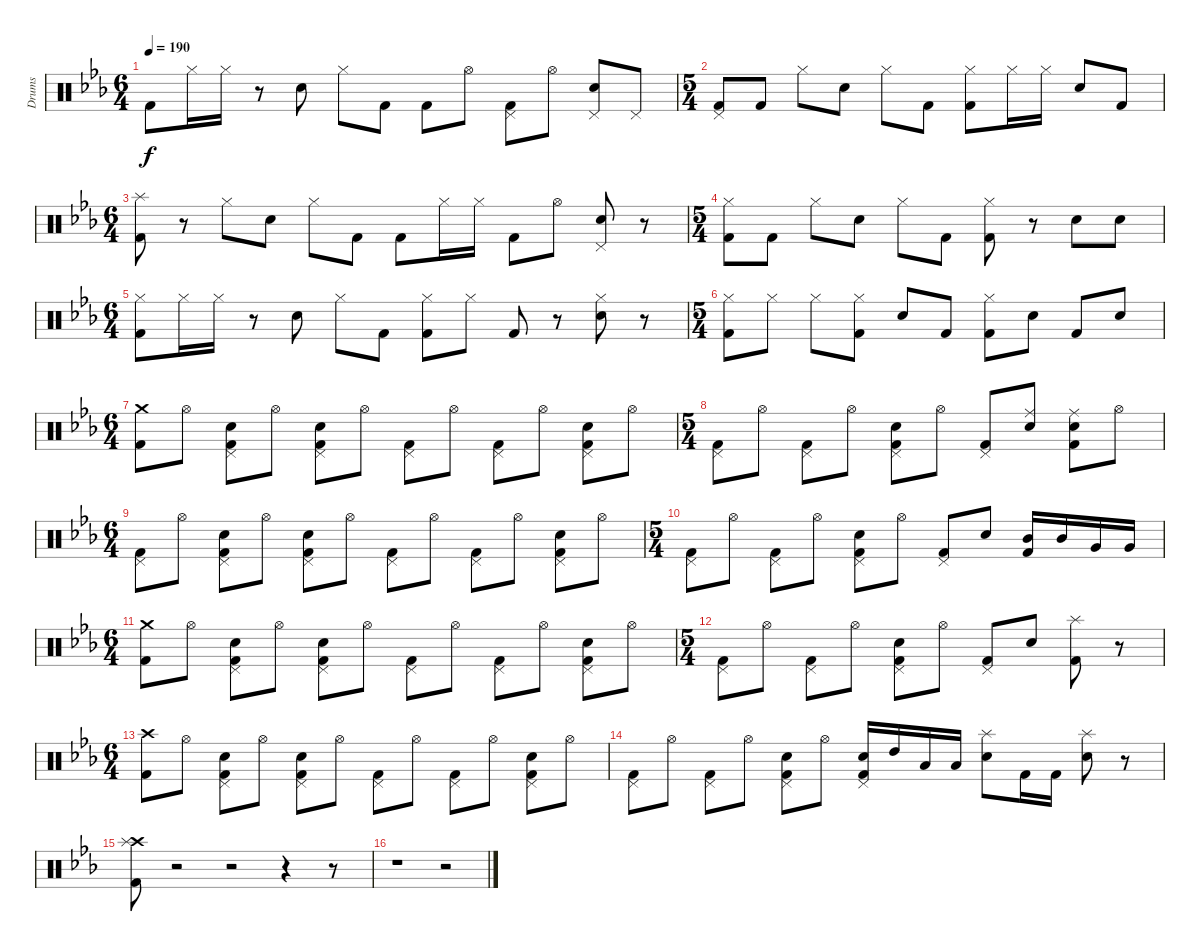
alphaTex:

\track ("Drums" "Drums") {instrument percussion}
\staff {score}
\articulation defaults
\ts (6 4)
\tempo 190
\clef neutral
\ks eb "Kick (hit) 2".8{dy f} "Hi-Hat (closed)".16 "Hi-Hat (closed)".16
r.8 "Electric Snare (hit)".8 "Hi-Hat (closed)".8 "Kick (hit) 2".8 "Kick (hit) 2".8 "Hi-Hat (open)".8 ("Kick (hit) 2" "Pedal Hi-Hat (hit)").8 "Hi-Hat (open)".8 ("Electric Snare (hit)" "Pedal Hi-Hat (hit)").8 "Pedal Hi-Hat (hit)".8 |
\ts (5 4)
("Kick (hit) 2" "Pedal Hi-Hat (hit)").8 "Kick (hit) 2".8 "Hi-Hat (closed)".8 "Electric Snare (hit)".8 "Hi-Hat (closed)".8 "Kick (hit) 2".8 ("Kick (hit) 2" "Hi-Hat (closed)").8 "Hi-Hat (closed)".16 "Hi-Hat (closed)".16 "Electric Snare (hit)".8 "Kick (hit) 2".8 |
\ts (6 4)
("Kick (hit) 2" "Splash (hit)").8 r.8 "Hi-Hat (closed)".8 "Electric Snare (hit)".8 "Hi-Hat (closed)".8 "Kick (hit) 2".8 "Kick (hit) 2".8 "Hi-Hat (closed)".16 "Hi-Hat (closed)".16 "Kick (hit) 2".8 "Hi-Hat (open)".8 ("Electric Snare (hit)" "Pedal Hi-Hat (hit)").8 r.8 |
\ts (5 4)
("Kick (hit) 2" "Hi-Hat (closed)").8 "Kick (hit) 2".8 "Hi-Hat (closed)".8 "Electric Snare (hit)".8 "Hi-Hat (closed)".8 "Kick (hit) 2".8 ("Kick (hit) 2" "Hi-Hat (closed)").8 r.8 "Electric Snare (hit)".8 "Electric Snare (hit)".8 |
\ts (6 4)
("Kick (hit) 2" "Hi-Hat (closed)").8 "Hi-Hat (closed)".16 "Hi-Hat (closed)".16 r.8 "Electric Snare (hit)".8 "Hi-Hat (closed)".8 "Kick (hit) 2".8 ("Kick (hit) 2" "Hi-Hat (closed)").8 "Hi-Hat (closed)".8 "Kick (hit) 2".8 r.8 ("Electric Snare (hit)" "Hi-Hat (closed)").8 r.8 |
\ts (5 4)
("Kick (hit) 2" "Hi-Hat (closed)").8 "Hi-Hat (closed)".8 "Hi-Hat (closed)".8 ("Kick (hit) 2" "Hi-Hat (closed)").8 "Electric Snare (hit)".8 "Kick (hit) 2".8 ("Kick (hit) 2" "Hi-Hat (closed)").8 "Electric Snare (hit)".8 "Kick (hit) 2".8 "Electric Snare (hit)".8 |
\ts (6 4)
("Kick (hit) 2" "Crash medium (hit)").8 "Hi-Hat (open)".8 ("Kick (hit) 2" "Electric Snare (hit)" "Pedal Hi-Hat (hit)").8 "Hi-Hat (open)".8 ("Kick (hit) 2" "Electric Snare (hit)" "Pedal Hi-Hat (hit)").8 "Hi-Hat (open)".8 ("Kick (hit) 2" "Pedal Hi-Hat (hit)").8 "Hi-Hat (open)".8 ("Kick (hit) 2" "Pedal Hi-Hat (hit)").8 "Hi-Hat (open)".8 ("Kick (hit) 2" "Electric Snare (hit)" "Pedal Hi-Hat (hit)").8 "Hi-Hat (open)".8 |
\ts (5 4)
("Kick (hit) 2" "Pedal Hi-Hat (hit)").8 "Hi-Hat (open)".8 ("Kick (hit) 2" "Pedal Hi-Hat (hit)").8 "Hi-Hat (open)".8 ("Kick (hit) 2" "Electric Snare (hit)" "Pedal Hi-Hat (hit)").8 "Hi-Hat (open)".8 ("Kick (hit) 2" "Pedal Hi-Hat (hit)").8 ("Electric Snare (hit)" "Ride (middle)").8 ("Kick (hit) 2" "Electric Snare (hit)" "Ride (middle)").8 "Hi-Hat (open)".8 |
\ts (6 4)
("Kick (hit) 2" "Pedal Hi-Hat (hit)").8 "Hi-Hat (open)".8 ("Kick (hit) 2" "Electric Snare (hit)" "Pedal Hi-Hat (hit)").8 "Hi-Hat (open)".8 ("Kick (hit) 2" "Electric Snare (hit)" "Pedal Hi-Hat (hit)").8 "Hi-Hat (open)".8 ("Kick (hit) 2" "Pedal Hi-Hat (hit)").8 "Hi-Hat (open)".8 ("Kick (hit) 2" "Pedal Hi-Hat (hit)").8 "Hi-Hat (open)".8 ("Kick (hit) 2" "Electric Snare (hit)" "Pedal Hi-Hat (hit)").8 "Hi-Hat (open)".8 |
\ts (5 4)
("Kick (hit) 2" "Pedal Hi-Hat (hit)").8 "Hi-Hat (open)".8 ("Kick (hit) 2" "Pedal Hi-Hat (hit)").8 "Hi-Hat (open)".8 ("Kick (hit) 2" "Electric Snare (hit)" "Pedal Hi-Hat (hit)").8 "Hi-Hat (open)".8 ("Kick (hit) 2" "Pedal Hi-Hat (hit)").8 "Electric Snare (hit)".8 ("Kick (hit) 2" "Mid Tom (hit)").16 "Mid Tom (hit)".16 "Very Low Tom (hit)".16 "Very Low Tom (hit)".16 |
\ts (6 4)
("Kick (hit) 2" "Crash medium (hit)").8 "Hi-Hat (open)".8 ("Kick (hit) 2" "Electric Snare (hit)" "Pedal Hi-Hat (hit)").8 "Hi-Hat (open)".8 ("Kick (hit) 2" "Electric Snare (hit)" "Pedal Hi-Hat (hit)").8 "Hi-Hat (open)".8 ("Kick (hit) 2" "Pedal Hi-Hat (hit)").8 "Hi-Hat (open)".8 ("Kick (hit) 2" "Pedal Hi-Hat (hit)").8 "Hi-Hat (open)".8 ("Kick (hit) 2" "Electric Snare (hit)" "Pedal Hi-Hat (hit)").8 "Hi-Hat (open)".8 |
\ts (5 4)
("Kick (hit) 2" "Pedal Hi-Hat (hit)").8 "Hi-Hat (open)".8 ("Kick (hit) 2" "Pedal Hi-Hat (hit)").8 "Hi-Hat (open)".8 ("Kick (hit) 2" "Electric Snare (hit)" "Pedal Hi-Hat (hit)").8 "Hi-Hat (open)".8 ("Kick (hit) 2" "Pedal Hi-Hat (hit)").8 "Electric Snare (hit)".8 ("Kick (hit) 2" "Splash (hit)").8 r.8 |
\ts (6 4)
("Kick (hit) 2" "Crash high (hit)").8 "Hi-Hat (open)".8 ("Kick (hit) 2" "Electric Snare (hit)" "Pedal Hi-Hat (hit)").8 "Hi-Hat (open)".8 ("Kick (hit) 2" "Electric Snare (hit)" "Pedal Hi-Hat (hit)").8 "Hi-Hat (open)".8 ("Kick (hit) 2" "Pedal Hi-Hat (hit)").8 "Hi-Hat (open)".8 ("Kick (hit) 2" "Pedal Hi-Hat (hit)").8 "Hi-Hat (open)".8 ("Kick (hit) 2" "Electric Snare (hit)" "Pedal Hi-Hat (hit)").8 "Hi-Hat (open)".8 |
("Kick (hit) 2" "Pedal Hi-Hat (hit)").8 "Hi-Hat (open)".8 ("Kick (hit) 2" "Pedal Hi-Hat (hit)").8 "Hi-Hat (open)".8 ("Kick (hit) 2" "Electric Snare (hit)" "Pedal Hi-Hat (hit)").8 "Hi-Hat (open)".8 ("Kick (hit) 2" "Electric Snare (hit)" "Pedal Hi-Hat (hit)").16 "High Tom (hit)".16 "Low Tom (hit)".16 "Low Floor Tom (hit)".16 ("Electric Snare (hit)" "Splash (hit)").8 "Kick (hit) 2".16 "Kick (hit) 2".16 ("Electric Snare (hit)" "Splash (hit)").8 r.8 |
("Kick (hit) 2" "Crash high (hit)" "Splash (hit)").8 r.2 r.2 r.4 r.8 |
r.1 r.2
